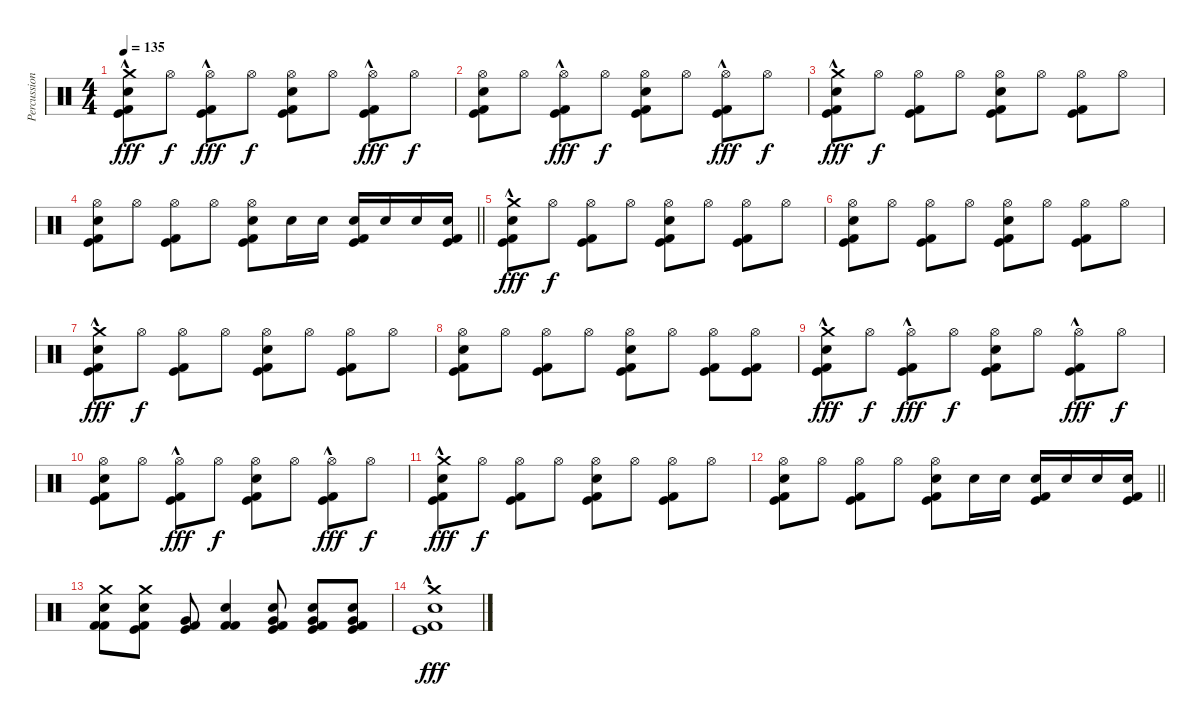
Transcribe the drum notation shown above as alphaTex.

\track ("Percussions" "Percussion") {instrument percussion}
\staff {score}
\articulation defaults
\ts (4 4)
\tempo 135
\clef neutral
\ks c
("Crash medium (hit)"{hac} "Electric Snare (hit)"{hac} "Kick (hit)"{hac} "Kick (hit) 2"{hac}).8{dy fff} "Hi-Hat (open)".8{dy f} ("Hi-Hat (open)"{hac} "Kick (hit)"{hac} "Kick (hit) 2"{hac}).8{dy fff} "Hi-Hat (open)".8{dy f} ("Hi-Hat (open)" "Electric Snare (hit)" "Kick (hit)" "Kick (hit) 2").8 "Hi-Hat (open)".8 ("Hi-Hat (open)"{hac} "Kick (hit)"{hac} "Kick (hit) 2"{hac}).8{dy fff} "Hi-Hat (open)".8{dy f} |
("Hi-Hat (open)" "Electric Snare (hit)" "Kick (hit)" "Kick (hit) 2").8 "Hi-Hat (open)".8 ("Hi-Hat (open)"{hac} "Kick (hit)"{hac} "Kick (hit) 2"{hac}).8{dy fff} "Hi-Hat (open)".8{dy f} ("Hi-Hat (open)" "Electric Snare (hit)" "Kick (hit) 2" "Kick (hit)").8 "Hi-Hat (open)".8 ("Hi-Hat (open)"{hac} "Kick (hit)"{hac} "Kick (hit) 2"{hac}).8{dy fff} "Hi-Hat (open)".8{dy f} |
("Crash medium (hit)"{hac} "Electric Snare (hit)"{hac} "Kick (hit)"{hac} "Kick (hit) 2"{hac}).8{dy fff} "Hi-Hat (open)".8{dy f} ("Hi-Hat (open)" "Kick (hit)" "Kick (hit) 2").8 "Hi-Hat (open)".8 ("Hi-Hat (open)" "Electric Snare (hit)" "Kick (hit)" "Kick (hit) 2").8 "Hi-Hat (open)".8 ("Hi-Hat (open)" "Kick (hit)" "Kick (hit) 2").8 "Hi-Hat (open)".8 |
\barLineRight lightlight
("Hi-Hat (open)" "Electric Snare (hit)" "Kick (hit)" "Kick (hit) 2").8 "Hi-Hat (open)".8 ("Hi-Hat (open)" "Kick (hit)" "Kick (hit) 2").8 "Hi-Hat (open)".8 ("Hi-Hat (open)" "Electric Snare (hit)" "Kick (hit) 2" "Kick (hit)").8 "Electric Snare (hit)".16 "Electric Snare (hit)".16 ("Electric Snare (hit)" "Kick (hit)" "Kick (hit) 2").16 "Electric Snare (hit)".16 "Electric Snare (hit)".16 ("Electric Snare (hit)" "Kick (hit)" "Kick (hit) 2").16 |
("Crash medium (hit)"{hac} "Electric Snare (hit)"{hac} "Kick (hit)"{hac} "Kick (hit) 2"{hac}).8{dy fff} "Hi-Hat (open)".8{dy f} ("Hi-Hat (open)" "Kick (hit)" "Kick (hit) 2").8 "Hi-Hat (open)".8 ("Hi-Hat (open)" "Electric Snare (hit)" "Kick (hit)" "Kick (hit) 2").8 "Hi-Hat (open)".8 ("Hi-Hat (open)" "Kick (hit)" "Kick (hit) 2").8 "Hi-Hat (open)".8 |
("Hi-Hat (open)" "Electric Snare (hit)" "Kick (hit)" "Kick (hit) 2").8 "Hi-Hat (open)".8 ("Hi-Hat (open)" "Kick (hit)" "Kick (hit) 2").8 "Hi-Hat (open)".8 ("Hi-Hat (open)" "Electric Snare (hit)" "Kick (hit) 2" "Kick (hit)").8 "Hi-Hat (open)".8 ("Hi-Hat (open)" "Kick (hit)" "Kick (hit) 2").8 "Hi-Hat (open)".8 |
("Crash medium (hit)"{hac} "Electric Snare (hit)"{hac} "Kick (hit)"{hac} "Kick (hit) 2"{hac}).8{dy fff} "Hi-Hat (open)".8{dy f} ("Hi-Hat (open)" "Kick (hit)" "Kick (hit) 2").8 "Hi-Hat (open)".8 ("Hi-Hat (open)" "Electric Snare (hit)" "Kick (hit)" "Kick (hit) 2").8 "Hi-Hat (open)".8 ("Hi-Hat (open)" "Kick (hit)" "Kick (hit) 2").8 "Hi-Hat (open)".8 |
("Hi-Hat (open)" "Electric Snare (hit)" "Kick (hit)" "Kick (hit) 2").8 "Hi-Hat (open)".8 ("Hi-Hat (open)" "Kick (hit)" "Kick (hit) 2").8 "Hi-Hat (open)".8 ("Hi-Hat (open)" "Electric Snare (hit)" "Kick (hit) 2" "Kick (hit)").8 "Hi-Hat (open)".8 ("Hi-Hat (open)" "Kick (hit)" "Kick (hit) 2").8 ("Hi-Hat (open)" "Kick (hit)" "Kick (hit) 2").8 |
("Crash medium (hit)"{hac} "Electric Snare (hit)"{hac} "Kick (hit)"{hac} "Kick (hit) 2"{hac}).8{dy fff} "Hi-Hat (open)".8{dy f} ("Hi-Hat (open)"{hac} "Kick (hit)"{hac} "Kick (hit) 2"{hac}).8{dy fff} "Hi-Hat (open)".8{dy f} ("Hi-Hat (open)" "Electric Snare (hit)" "Kick (hit)" "Kick (hit) 2").8 "Hi-Hat (open)".8 ("Hi-Hat (open)"{hac} "Kick (hit)"{hac} "Kick (hit) 2"{hac}).8{dy fff} "Hi-Hat (open)".8{dy f} |
("Hi-Hat (open)" "Electric Snare (hit)" "Kick (hit)" "Kick (hit) 2").8 "Hi-Hat (open)".8 ("Hi-Hat (open)"{hac} "Kick (hit)"{hac} "Kick (hit) 2"{hac}).8{dy fff} "Hi-Hat (open)".8{dy f} ("Hi-Hat (open)" "Electric Snare (hit)" "Kick (hit) 2" "Kick (hit)").8 "Hi-Hat (open)".8 ("Hi-Hat (open)"{hac} "Kick (hit)"{hac} "Kick (hit) 2"{hac}).8{dy fff} "Hi-Hat (open)".8{dy f} |
("Crash medium (hit)"{hac} "Electric Snare (hit)"{hac} "Kick (hit)"{hac} "Kick (hit) 2"{hac}).8{dy fff} "Hi-Hat (open)".8{dy f} ("Hi-Hat (open)" "Kick (hit)" "Kick (hit) 2").8 "Hi-Hat (open)".8 ("Hi-Hat (open)" "Electric Snare (hit)" "Kick (hit)" "Kick (hit) 2").8 "Hi-Hat (open)".8 ("Hi-Hat (open)" "Kick (hit)" "Kick (hit) 2").8 "Hi-Hat (open)".8 |
\barLineRight lightlight
("Hi-Hat (open)" "Electric Snare (hit)" "Kick (hit)" "Kick (hit) 2").8 "Hi-Hat (open)".8 ("Hi-Hat (open)" "Kick (hit)" "Kick (hit) 2").8 "Hi-Hat (open)".8 ("Hi-Hat (open)" "Electric Snare (hit)" "Kick (hit) 2" "Kick (hit)").8 "Electric Snare (hit)".16 "Electric Snare (hit)".16 ("Electric Snare (hit)" "Kick (hit)" "Kick (hit) 2").16 "Electric Snare (hit)".16 "Electric Snare (hit)".16 ("Electric Snare (hit)" "Kick (hit)" "Kick (hit) 2").16 |
("Crash medium (hit)" "Electric Snare (hit)" "Kick (hit) 2" "Kick (hit) 2").8 ("Crash medium (hit)" "Electric Snare (hit)" "Kick (hit) 2" "Kick (hit)").8 ("Very Low Tom (hit)" "Kick (hit) 2" "Kick (hit)").8 ("Electric Snare (hit)" "Kick (hit) 2" "Kick (hit) 2").4 ("Electric Snare (hit)" "Very Low Tom (hit)" "Kick (hit)" "Kick (hit) 2").8 ("Electric Snare (hit)" "Very Low Tom (hit)" "Kick (hit)" "Kick (hit) 2").8 ("Electric Snare (hit)" "Very Low Tom (hit)" "Kick (hit)" "Kick (hit) 2").8 |
("Crash medium (hit)"{hac} "Electric Snare (hit)"{hac} "Kick (hit)"{hac} "Kick (hit) 2"{hac}).1{dy fff}
